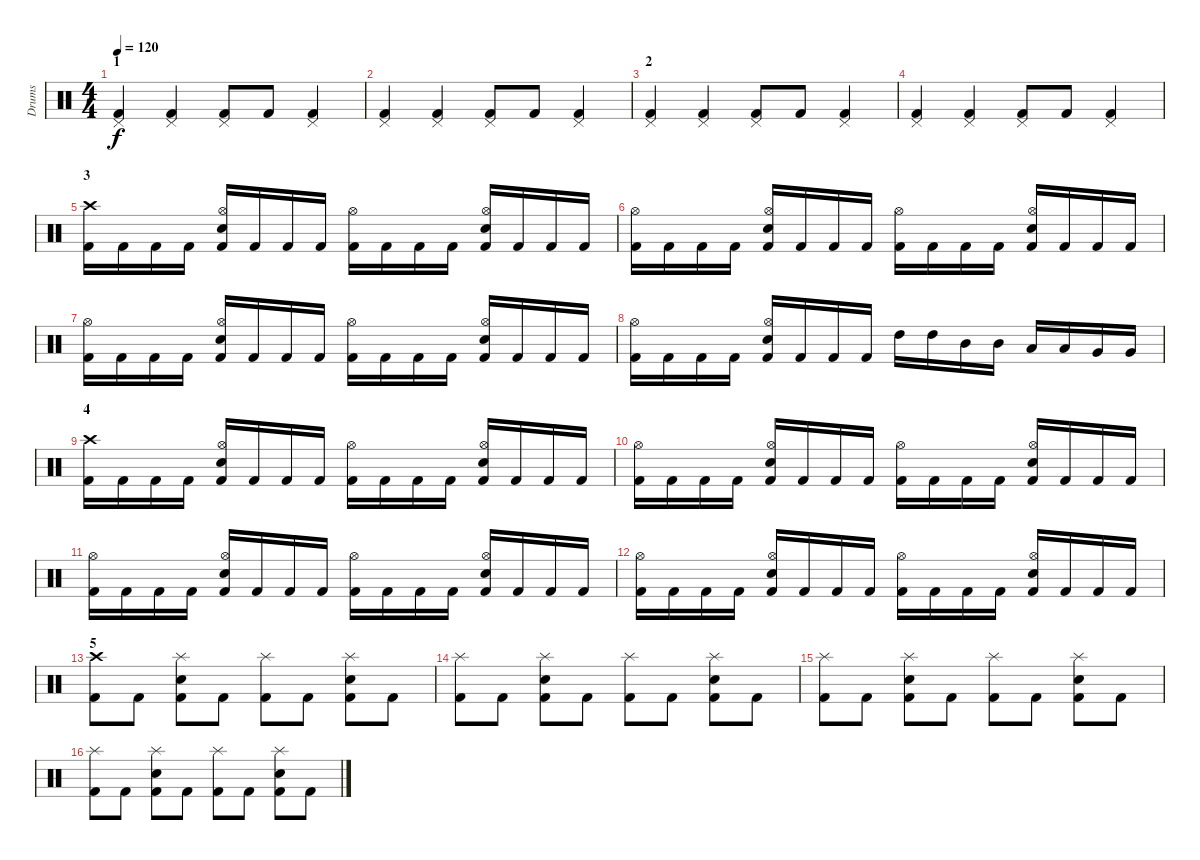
\track ("Drums " "Drums ") {instrument percussion}
\staff {score}
\articulation defaults
\ts (4 4)
\section ("" "1")
\tempo 120
\clef neutral
\ks c
("Pedal Hi-Hat (hit)" "Kick (hit) 2").4{dy f} ("Pedal Hi-Hat (hit)" "Kick (hit) 2").4 ("Pedal Hi-Hat (hit)" "Kick (hit) 2").8 "Kick (hit) 2".8 ("Pedal Hi-Hat (hit)" "Kick (hit) 2").4 |
("Pedal Hi-Hat (hit)" "Kick (hit) 2").4 ("Pedal Hi-Hat (hit)" "Kick (hit) 2").4 ("Pedal Hi-Hat (hit)" "Kick (hit) 2").8 "Kick (hit) 2".8 ("Pedal Hi-Hat (hit)" "Kick (hit) 2").4 |
\section ("" "2")
("Pedal Hi-Hat (hit)" "Kick (hit) 2").4 ("Pedal Hi-Hat (hit)" "Kick (hit) 2").4 ("Pedal Hi-Hat (hit)" "Kick (hit) 2").8 "Kick (hit) 2".8 ("Pedal Hi-Hat (hit)" "Kick (hit) 2").4 |
("Pedal Hi-Hat (hit)" "Kick (hit) 2").4 ("Pedal Hi-Hat (hit)" "Kick (hit) 2").4 ("Pedal Hi-Hat (hit)" "Kick (hit) 2").8 "Kick (hit) 2".8 ("Pedal Hi-Hat (hit)" "Kick (hit) 2").4 |
\section ("" "3")
("Crash high (hit)" "Kick (hit) 2").16 "Kick (hit) 2".16 "Kick (hit) 2".16 "Kick (hit) 2".16 ("Hi-Hat (open)" "Electric Snare (hit)" "Kick (hit) 2").16 "Kick (hit) 2".16 "Kick (hit) 2".16 "Kick (hit) 2".16 ("Hi-Hat (open)" "Kick (hit) 2").16 "Kick (hit) 2".16 "Kick (hit) 2".16 "Kick (hit) 2".16 ("Hi-Hat (open)" "Electric Snare (hit)" "Kick (hit) 2").16 "Kick (hit) 2".16 "Kick (hit) 2".16 "Kick (hit) 2".16 |
("Hi-Hat (open)" "Kick (hit) 2").16 "Kick (hit) 2".16 "Kick (hit) 2".16 "Kick (hit) 2".16 ("Hi-Hat (open)" "Electric Snare (hit)" "Kick (hit) 2").16 "Kick (hit) 2".16 "Kick (hit) 2".16 "Kick (hit) 2".16 ("Hi-Hat (open)" "Kick (hit) 2").16 "Kick (hit) 2".16 "Kick (hit) 2".16 "Kick (hit) 2".16 ("Hi-Hat (open)" "Electric Snare (hit)" "Kick (hit) 2").16 "Kick (hit) 2".16 "Kick (hit) 2".16 "Kick (hit) 2".16 |
("Hi-Hat (open)" "Kick (hit) 2").16 "Kick (hit) 2".16 "Kick (hit) 2".16 "Kick (hit) 2".16 ("Hi-Hat (open)" "Electric Snare (hit)" "Kick (hit) 2").16 "Kick (hit) 2".16 "Kick (hit) 2".16 "Kick (hit) 2".16 ("Hi-Hat (open)" "Kick (hit) 2").16 "Kick (hit) 2".16 "Kick (hit) 2".16 "Kick (hit) 2".16 ("Hi-Hat (open)" "Electric Snare (hit)" "Kick (hit) 2").16 "Kick (hit) 2".16 "Kick (hit) 2".16 "Kick (hit) 2".16 |
("Hi-Hat (open)" "Kick (hit) 2").16 "Kick (hit) 2".16 "Kick (hit) 2".16 "Kick (hit) 2".16 ("Hi-Hat (open)" "Electric Snare (hit)" "Kick (hit) 2").16 "Kick (hit) 2".16 "Kick (hit) 2".16 "Kick (hit) 2".16 "High Tom (hit)".16 "High Tom (hit)".16 "Mid Tom (hit)".16 "Mid Tom (hit)".16 "Low Tom (hit)".16 "Low Tom (hit)".16 "Very Low Tom (hit)".16 "Very Low Tom (hit)".16 |
\section ("" "4")
("Crash high (hit)" "Kick (hit) 2").16 "Kick (hit) 2".16 "Kick (hit) 2".16 "Kick (hit) 2".16 ("Hi-Hat (open)" "Electric Snare (hit)" "Kick (hit) 2").16 "Kick (hit) 2".16 "Kick (hit) 2".16 "Kick (hit) 2".16 ("Hi-Hat (open)" "Kick (hit) 2").16 "Kick (hit) 2".16 "Kick (hit) 2".16 "Kick (hit) 2".16 ("Hi-Hat (open)" "Electric Snare (hit)" "Kick (hit) 2").16 "Kick (hit) 2".16 "Kick (hit) 2".16 "Kick (hit) 2".16 |
("Hi-Hat (open)" "Kick (hit) 2").16 "Kick (hit) 2".16 "Kick (hit) 2".16 "Kick (hit) 2".16 ("Hi-Hat (open)" "Electric Snare (hit)" "Kick (hit) 2").16 "Kick (hit) 2".16 "Kick (hit) 2".16 "Kick (hit) 2".16 ("Hi-Hat (open)" "Kick (hit) 2").16 "Kick (hit) 2".16 "Kick (hit) 2".16 "Kick (hit) 2".16 ("Hi-Hat (open)" "Electric Snare (hit)" "Kick (hit) 2").16 "Kick (hit) 2".16 "Kick (hit) 2".16 "Kick (hit) 2".16 |
("Hi-Hat (open)" "Kick (hit) 2").16 "Kick (hit) 2".16 "Kick (hit) 2".16 "Kick (hit) 2".16 ("Hi-Hat (open)" "Electric Snare (hit)" "Kick (hit) 2").16 "Kick (hit) 2".16 "Kick (hit) 2".16 "Kick (hit) 2".16 ("Hi-Hat (open)" "Kick (hit) 2").16 "Kick (hit) 2".16 "Kick (hit) 2".16 "Kick (hit) 2".16 ("Hi-Hat (open)" "Electric Snare (hit)" "Kick (hit) 2").16 "Kick (hit) 2".16 "Kick (hit) 2".16 "Kick (hit) 2".16 |
("Hi-Hat (open)" "Kick (hit) 2").16 "Kick (hit) 2".16 "Kick (hit) 2".16 "Kick (hit) 2".16 ("Hi-Hat (open)" "Electric Snare (hit)" "Kick (hit) 2").16 "Kick (hit) 2".16 "Kick (hit) 2".16 "Kick (hit) 2".16 ("Hi-Hat (open)" "Kick (hit) 2").16 "Kick (hit) 2".16 "Kick (hit) 2".16 "Kick (hit) 2".16 ("Hi-Hat (open)" "Electric Snare (hit)" "Kick (hit) 2").16 "Kick (hit) 2".16 "Kick (hit) 2".16 "Kick (hit) 2".16 |
\section ("" "5")
("Crash high (hit)" "Kick (hit) 2").8 "Kick (hit) 2".8 ("Splash (hit)" "Electric Snare (hit)" "Kick (hit) 2").8 "Kick (hit) 2".8 ("Splash (hit)" "Kick (hit) 2").8 "Kick (hit) 2".8 ("Splash (hit)" "Electric Snare (hit)" "Kick (hit) 2").8 "Kick (hit) 2".8 |
("Splash (hit)" "Kick (hit) 2").8 "Kick (hit) 2".8 ("Splash (hit)" "Electric Snare (hit)" "Kick (hit) 2").8 "Kick (hit) 2".8 ("Splash (hit)" "Kick (hit) 2").8 "Kick (hit) 2".8 ("Splash (hit)" "Electric Snare (hit)" "Kick (hit) 2").8 "Kick (hit) 2".8 |
("Splash (hit)" "Kick (hit) 2").8 "Kick (hit) 2".8 ("Splash (hit)" "Electric Snare (hit)" "Kick (hit) 2").8 "Kick (hit) 2".8 ("Splash (hit)" "Kick (hit) 2").8 "Kick (hit) 2".8 ("Splash (hit)" "Electric Snare (hit)" "Kick (hit) 2").8 "Kick (hit) 2".8 |
("Splash (hit)" "Kick (hit) 2").8 "Kick (hit) 2".8 ("Splash (hit)" "Electric Snare (hit)" "Kick (hit) 2").8 "Kick (hit) 2".8 ("Splash (hit)" "Kick (hit) 2").8 "Kick (hit) 2".8 ("Splash (hit)" "Electric Snare (hit)" "Kick (hit) 2").8 "Kick (hit) 2".8
